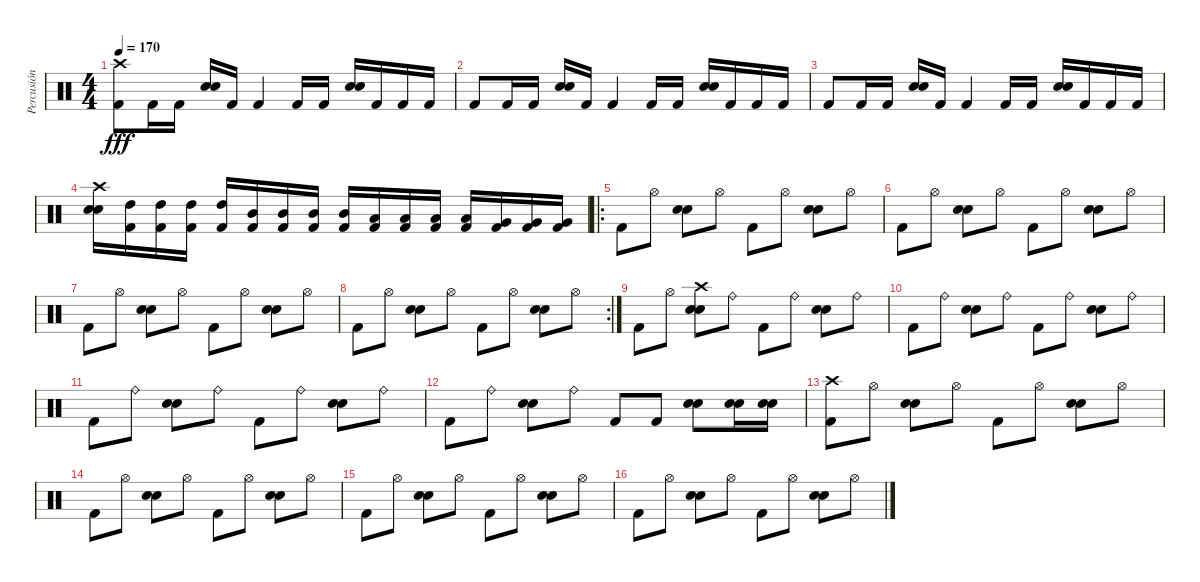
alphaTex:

\track ("Percusión" "Percusión") {instrument percussion}
\staff {score}
\articulation defaults
\ts (4 4)
\tempo 170
\clef neutral
\ks c
("Kick (hit) 2" "Crash high (hit)").8{dy fff} "Kick (hit) 2".16 "Kick (hit) 2".16 ("Snare (hit) 2" "Electric Snare (hit)").16 "Kick (hit) 2".16 "Kick (hit) 2".4 "Kick (hit) 2".16 "Kick (hit) 2".16 ("Snare (hit) 2" "Electric Snare (hit)").16 "Kick (hit) 2".16 "Kick (hit) 2".16 "Kick (hit) 2".16 |
"Kick (hit) 2".8 "Kick (hit) 2".16 "Kick (hit) 2".16 ("Snare (hit) 2" "Electric Snare (hit)").16 "Kick (hit) 2".16 "Kick (hit) 2".4 "Kick (hit) 2".16 "Kick (hit) 2".16 ("Snare (hit) 2" "Electric Snare (hit)").16 "Kick (hit) 2".16 "Kick (hit) 2".16 "Kick (hit) 2".16 |
"Kick (hit) 2".8 "Kick (hit) 2".16 "Kick (hit) 2".16 ("Snare (hit) 2" "Electric Snare (hit)").16 "Kick (hit) 2".16 "Kick (hit) 2".4 "Kick (hit) 2".16 "Kick (hit) 2".16 ("Snare (hit) 2" "Electric Snare (hit)").16 "Kick (hit) 2".16 "Kick (hit) 2".16 "Kick (hit) 2".16 |
("Snare (hit) 2" "Electric Snare (hit)" "Crash high (hit)").16 ("High Tom (hit)" "Kick (hit) 2").16 ("High Tom (hit)" "Kick (hit) 2").16 ("High Tom (hit)" "Kick (hit) 2").16 ("High Tom (hit)" "Kick (hit) 2").16 ("Mid Tom (hit)" "Kick (hit) 2").16 ("Mid Tom (hit)" "Kick (hit) 2").16 ("Mid Tom (hit)" "Kick (hit) 2").16 ("Mid Tom (hit)" "Kick (hit) 2").16 ("Low Tom (hit)" "Kick (hit) 2").16 ("Low Tom (hit)" "Kick (hit) 2").16 ("Low Tom (hit)" "Kick (hit) 2").16 ("Low Tom (hit)" "Kick (hit) 2").16 ("Very Low Tom (hit)" "Kick (hit) 2").16 ("Very Low Tom (hit)" "Kick (hit) 2").16 ("Very Low Tom (hit)" "Kick (hit) 2").16 |
\ro "Kick (hit) 2".8 "Hi-Hat (open)".8
("Snare (hit) 2" "Electric Snare (hit)").8 "Hi-Hat (open)".8 "Kick (hit) 2".8 "Hi-Hat (open)".8 ("Snare (hit) 2" "Electric Snare (hit)").8 "Hi-Hat (open)".8 |
"Kick (hit) 2".8 "Hi-Hat (open)".8 ("Snare (hit) 2" "Electric Snare (hit)").8 "Hi-Hat (open)".8 "Kick (hit) 2".8 "Hi-Hat (open)".8 ("Snare (hit) 2" "Electric Snare (hit)").8 "Hi-Hat (open)".8 |
"Kick (hit) 2".8 "Hi-Hat (open)".8 ("Snare (hit) 2" "Electric Snare (hit)").8 "Hi-Hat (open)".8 "Kick (hit) 2".8 "Hi-Hat (open)".8 ("Snare (hit) 2" "Electric Snare (hit)").8 "Hi-Hat (open)".8 |
\rc 2 "Kick (hit) 2".8 "Hi-Hat (open)".8
("Snare (hit) 2" "Electric Snare (hit)").8 "Hi-Hat (open)".8 "Kick (hit) 2".8 "Hi-Hat (open)".8 ("Snare (hit) 2" "Electric Snare (hit)").8 "Hi-Hat (open)".8 |
"Kick (hit) 2".8 "Hi-Hat (open)".8 ("Snare (hit) 2" "Electric Snare (hit)" "Crash high (hit)").8 "Ride (bell)".8 "Kick (hit) 2".8 "Ride (bell)".8 ("Snare (hit) 2" "Electric Snare (hit)").8 "Ride (bell)".8 |
"Kick (hit) 2".8 "Ride (bell)".8 ("Snare (hit) 2" "Electric Snare (hit)").8 "Ride (bell)".8 "Kick (hit) 2".8 "Ride (bell)".8 ("Snare (hit) 2" "Electric Snare (hit)").8 "Ride (bell)".8 |
"Kick (hit) 2".8 "Ride (bell)".8 ("Snare (hit) 2" "Electric Snare (hit)").8 "Ride (bell)".8 "Kick (hit) 2".8 "Ride (bell)".8 ("Snare (hit) 2" "Electric Snare (hit)").8 "Ride (bell)".8 |
"Kick (hit) 2".8 "Ride (bell)".8 ("Snare (hit) 2" "Electric Snare (hit)").8 "Ride (bell)".8 "Kick (hit) 2".8 "Kick (hit) 2".8 ("Snare (hit) 2" "Electric Snare (hit)").8 ("Snare (hit) 2" "Electric Snare (hit)").16 ("Snare (hit) 2" "Electric Snare (hit)").16 |
("Kick (hit) 2" "Crash high (hit)").8 "Hi-Hat (open)".8 ("Snare (hit) 2" "Electric Snare (hit)").8 "Hi-Hat (open)".8 "Kick (hit) 2".8 "Hi-Hat (open)".8 ("Snare (hit) 2" "Electric Snare (hit)").8 "Hi-Hat (open)".8 |
"Kick (hit) 2".8 "Hi-Hat (open)".8 ("Snare (hit) 2" "Electric Snare (hit)").8 "Hi-Hat (open)".8 "Kick (hit) 2".8 "Hi-Hat (open)".8 ("Snare (hit) 2" "Electric Snare (hit)").8 "Hi-Hat (open)".8 |
"Kick (hit) 2".8 "Hi-Hat (open)".8 ("Snare (hit) 2" "Electric Snare (hit)").8 "Hi-Hat (open)".8 "Kick (hit) 2".8 "Hi-Hat (open)".8 ("Snare (hit) 2" "Electric Snare (hit)").8 "Hi-Hat (open)".8 |
"Kick (hit) 2".8 "Hi-Hat (open)".8 ("Snare (hit) 2" "Electric Snare (hit)").8 "Hi-Hat (open)".8 "Kick (hit) 2".8 "Hi-Hat (open)".8 ("Snare (hit) 2" "Electric Snare (hit)").8 "Hi-Hat (open)".8
